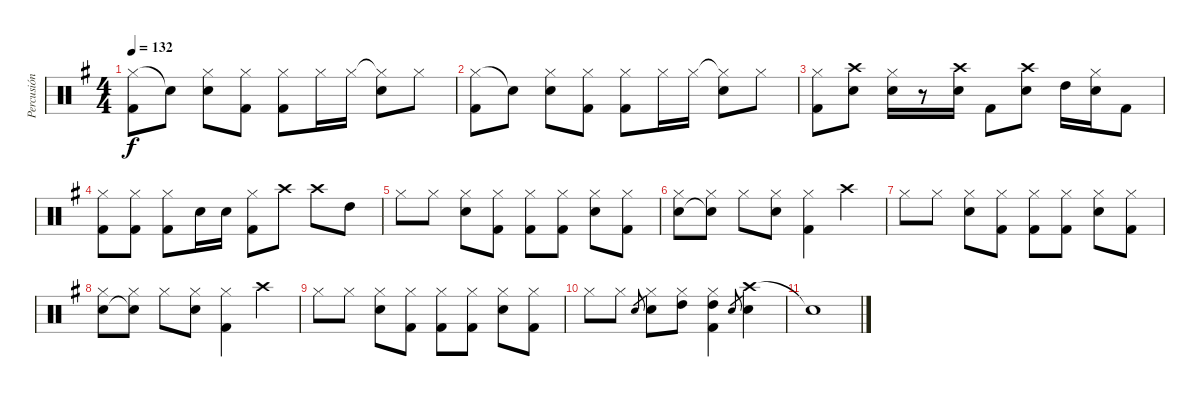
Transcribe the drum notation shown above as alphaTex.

\track ("Percusión" "Percusión") {instrument percussion}
\staff {score}
\articulation defaults
\ts (4 4)
\tempo 132
\clef neutral
\ks eminor
("Hi-Hat (closed)" "Kick (hit) 2").8{dy f} "Snare (hit)"{t}.8 ("Hi-Hat (closed)" "Electric Snare (hit)").8 ("Hi-Hat (closed)" "Kick (hit) 2").8 ("Hi-Hat (closed)" "Kick (hit) 2").8 "Hi-Hat (closed)".16 "Hi-Hat (closed)".16 ("Hi-Hat (closed)"{t} "Electric Snare (hit)").8 "Hi-Hat (closed)".8 |
("Hi-Hat (closed)" "Kick (hit) 2").8 "Snare (hit)"{t}.8 ("Hi-Hat (closed)" "Electric Snare (hit)").8 ("Hi-Hat (closed)" "Kick (hit) 2").8 ("Hi-Hat (closed)" "Kick (hit) 2").8 "Hi-Hat (closed)".16 "Hi-Hat (closed)".16 ("Hi-Hat (closed)"{t} "Electric Snare (hit)").8 "Hi-Hat (closed)".8 |
("Hi-Hat (closed)" "Kick (hit) 2").8 ("Crash high (hit)" "Electric Snare (hit)").8 ("Hi-Hat (closed)" "Electric Snare (hit)").16 r.8 ("Crash high (hit)" "Electric Snare (hit)").16 "Kick (hit) 2".8 ("Crash high (hit)" "Electric Snare (hit)").8 "High Tom (hit)".16 ("Hi-Hat (closed)" "Electric Snare (hit)").16 "Kick (hit) 2".8 |
("Hi-Hat (closed)" "Kick (hit) 2").8 ("Hi-Hat (closed)" "Kick (hit) 2").8 ("Hi-Hat (closed)" "Kick (hit) 2").8 "Electric Snare (hit)".16 "Electric Snare (hit)".16 ("Hi-Hat (closed)" "Kick (hit) 2").8 "Crash high (hit)".8 "Crash high (hit)".8 "High Tom (hit)".8 |
"Hi-Hat (closed)".8 "Hi-Hat (closed)".8 ("Hi-Hat (closed)" "Electric Snare (hit)").8 ("Hi-Hat (closed)" "Kick (hit) 2").8 ("Hi-Hat (closed)" "Kick (hit) 2").8 ("Hi-Hat (closed)" "Kick (hit) 2").8 ("Hi-Hat (closed)" "Electric Snare (hit)").8 ("Hi-Hat (closed)" "Kick (hit) 2").8 |
("Hi-Hat (closed)" "Electric Snare (hit)").8 ("Hi-Hat (closed)" "Snare (hit)"{t}).8 "Hi-Hat (closed)".8 ("Hi-Hat (closed)" "Electric Snare (hit)").8 ("Hi-Hat (closed)" "Kick (hit) 2").4 "Crash high (hit)".4 |
"Hi-Hat (closed)".8 "Hi-Hat (closed)".8 ("Hi-Hat (closed)" "Electric Snare (hit)").8 ("Hi-Hat (closed)" "Kick (hit) 2").8 ("Hi-Hat (closed)" "Kick (hit) 2").8 ("Hi-Hat (closed)" "Kick (hit) 2").8 ("Hi-Hat (closed)" "Electric Snare (hit)").8 ("Hi-Hat (closed)" "Kick (hit) 2").8 |
("Hi-Hat (closed)" "Electric Snare (hit)").8 ("Hi-Hat (closed)" "Snare (hit)"{t}).8 "Hi-Hat (closed)".8 ("Hi-Hat (closed)" "Electric Snare (hit)").8 ("Hi-Hat (closed)" "Kick (hit) 2").4 "Crash high (hit)".4 |
"Hi-Hat (closed)".8 "Hi-Hat (closed)".8 ("Hi-Hat (closed)" "Electric Snare (hit)").8 ("Hi-Hat (closed)" "Kick (hit) 2").8 ("Hi-Hat (closed)" "Kick (hit) 2").8 ("Hi-Hat (closed)" "Kick (hit) 2").8 ("Hi-Hat (closed)" "Electric Snare (hit)").8 ("Hi-Hat (closed)" "Kick (hit) 2").8 |
"Hi-Hat (closed)".8 "Hi-Hat (closed)".8 "Electric Snare (hit)".8{gr} ("Hi-Hat (closed)" "Electric Snare (hit)").8 ("Hi-Hat (closed)" "High Tom (hit)").8 ("Hi-Hat (closed)" "High Tom (hit)" "Kick (hit) 2").4 "Electric Snare (hit)".8{gr} ("Crash high (hit)" "Electric Snare (hit)").4 |
"Snare (hit)"{t}.1
